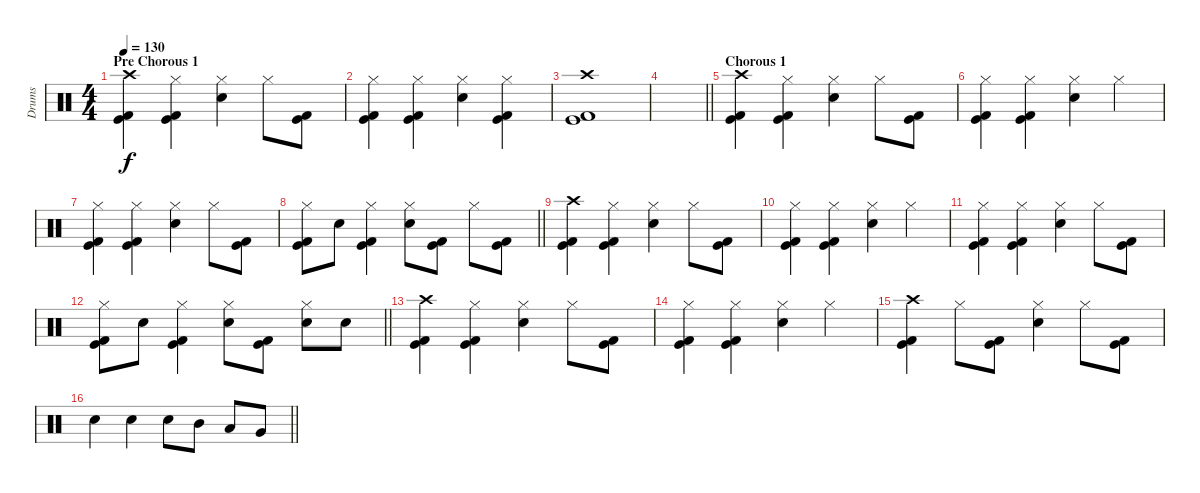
\track ("Drums" "Drums") {instrument percussion}
\staff {score}
\articulation defaults
\ts (4 4)
\section ("" "Pre Chorous 1")
\tempo 130
\clef neutral
\ks c
("Crash high (hit)" "Kick (hit)" "Kick (hit) 2").4{dy f} ("Hi-Hat (closed)" "Kick (hit)" "Kick (hit) 2").4 ("Hi-Hat (closed)" "Electric Snare (hit)").4 "Hi-Hat (closed)".8 ("Kick (hit)" "Kick (hit) 2").8 |
("Hi-Hat (closed)" "Kick (hit)" "Kick (hit) 2").4 ("Hi-Hat (closed)" "Kick (hit)" "Kick (hit) 2").4 ("Hi-Hat (closed)" "Electric Snare (hit)").4 ("Hi-Hat (closed)" "Kick (hit)" "Kick (hit) 2").4 |
("Crash high (hit)" "Kick (hit)" "Kick (hit) 2").1 |
\barLineRight lightlight
|
\section ("" "Chorous 1")
("Crash high (hit)" "Kick (hit)" "Kick (hit) 2").4 ("Hi-Hat (closed)" "Kick (hit)" "Kick (hit) 2").4 ("Hi-Hat (closed)" "Electric Snare (hit)").4 "Hi-Hat (closed)".8 ("Kick (hit)" "Kick (hit) 2").8 |
("Hi-Hat (closed)" "Kick (hit)" "Kick (hit) 2").4 ("Hi-Hat (closed)" "Kick (hit)" "Kick (hit) 2").4 ("Hi-Hat (closed)" "Electric Snare (hit)").4 "Hi-Hat (closed)".4 |
("Hi-Hat (closed)" "Kick (hit)" "Kick (hit) 2").4 ("Hi-Hat (closed)" "Kick (hit)" "Kick (hit) 2").4 ("Hi-Hat (closed)" "Electric Snare (hit)").4 "Hi-Hat (closed)".8 ("Kick (hit)" "Kick (hit) 2").8 |
\barLineRight lightlight
("Hi-Hat (closed)" "Kick (hit)" "Kick (hit) 2").8 "Electric Snare (hit)".8 ("Hi-Hat (closed)" "Kick (hit)" "Kick (hit) 2").4 ("Hi-Hat (closed)" "Electric Snare (hit)").8 ("Kick (hit)" "Kick (hit) 2").8 "Hi-Hat (closed)".8 ("Kick (hit)" "Kick (hit) 2").8 |
("Crash high (hit)" "Kick (hit)" "Kick (hit) 2").4 ("Hi-Hat (closed)" "Kick (hit)" "Kick (hit) 2").4 ("Hi-Hat (closed)" "Electric Snare (hit)").4 "Hi-Hat (closed)".8 ("Kick (hit)" "Kick (hit) 2").8 |
("Hi-Hat (closed)" "Kick (hit)" "Kick (hit) 2").4 ("Hi-Hat (closed)" "Kick (hit)" "Kick (hit) 2").4 ("Hi-Hat (closed)" "Electric Snare (hit)").4 "Hi-Hat (closed)".4 |
("Hi-Hat (closed)" "Kick (hit)" "Kick (hit) 2").4 ("Hi-Hat (closed)" "Kick (hit)" "Kick (hit) 2").4 ("Hi-Hat (closed)" "Electric Snare (hit)").4 "Hi-Hat (closed)".8 ("Kick (hit)" "Kick (hit) 2").8 |
\barLineRight lightlight
("Hi-Hat (closed)" "Kick (hit)" "Kick (hit) 2").8 "Electric Snare (hit)".8 ("Hi-Hat (closed)" "Kick (hit)" "Kick (hit) 2").4 ("Hi-Hat (closed)" "Electric Snare (hit)").8 ("Kick (hit)" "Kick (hit) 2").8 ("Hi-Hat (closed)" "Electric Snare (hit)").8 "Electric Snare (hit)".8 |
("Crash high (hit)" "Kick (hit)" "Kick (hit) 2").4 ("Hi-Hat (closed)" "Kick (hit)" "Kick (hit) 2").4 ("Hi-Hat (closed)" "Electric Snare (hit)").4 "Hi-Hat (closed)".8 ("Kick (hit)" "Kick (hit) 2").8 |
("Hi-Hat (closed)" "Kick (hit)" "Kick (hit) 2").4 ("Hi-Hat (closed)" "Kick (hit)" "Kick (hit) 2").4 ("Hi-Hat (closed)" "Electric Snare (hit)").4 "Hi-Hat (closed)".4 |
("Crash high (hit)" "Kick (hit)" "Kick (hit) 2").4 "Hi-Hat (closed)".8 ("Kick (hit)" "Kick (hit) 2").8 ("Hi-Hat (closed)" "Electric Snare (hit)").4 "Hi-Hat (closed)".8 ("Kick (hit)" "Kick (hit) 2").8 |
\barLineRight lightlight "Electric Snare (hit)".4 "Electric Snare (hit)".4 "Electric Snare (hit)".8 "Mid Tom (hit)".8 "Low Tom (hit)".8 "Very Low Tom (hit)".8
